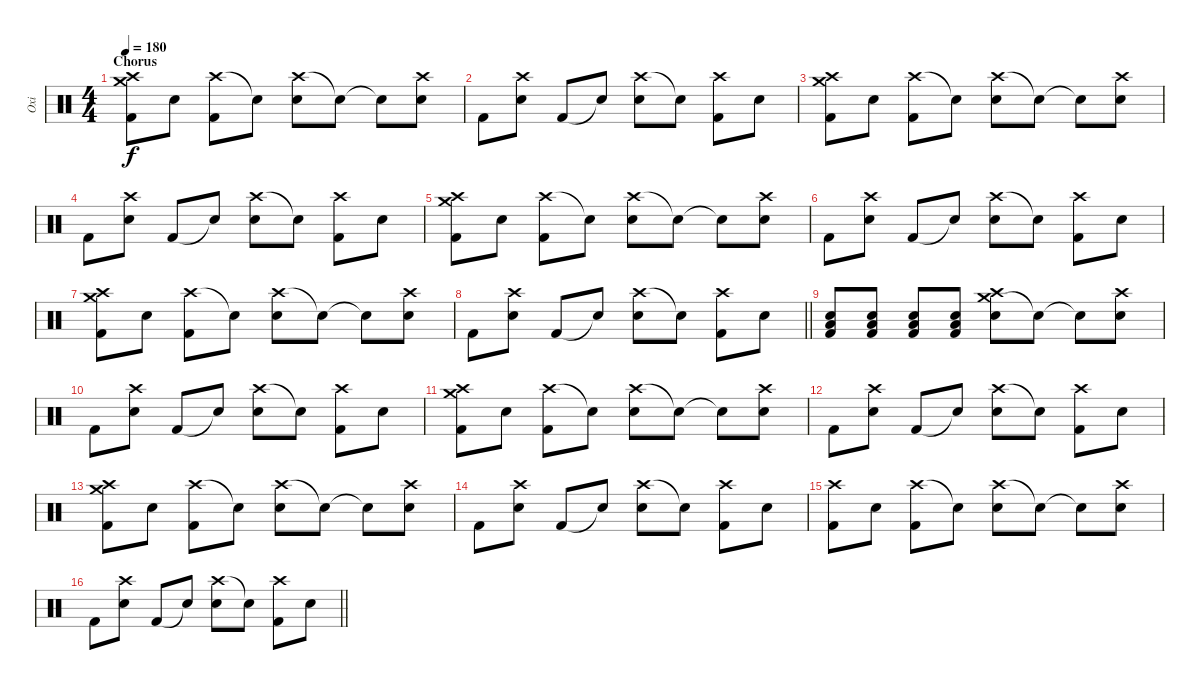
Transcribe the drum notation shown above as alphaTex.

\track ("Oxi" "Oxi") {instrument percussion}
\staff {score}
\articulation defaults
\ts (4 4)
\section ("" "Chorus")
\tempo 180
\clef neutral
\ks c
("Crash medium (hit)" "Crash high (hit)" "Kick (hit) 2").8{dy f} "Electric Snare (hit)".8 ("Crash high (hit)" "Kick (hit) 2").8 "Snare (hit)"{t}.8 ("Crash high (hit)" "Electric Snare (hit)").8 "Snare (hit)"{t}.8 "Snare (hit)"{t}.8 ("Crash high (hit)" "Electric Snare (hit)").8 |
"Kick (hit) 2".8 ("Crash high (hit)" "Electric Snare (hit)").8 "Kick (hit) 2".8 "Snare (hit)"{t}.8 ("Crash high (hit)" "Electric Snare (hit)").8 "Snare (hit)"{t}.8 ("Crash high (hit)" "Kick (hit) 2").8 "Electric Snare (hit)".8 |
("Crash medium (hit)" "Crash high (hit)" "Kick (hit) 2").8 "Electric Snare (hit)".8 ("Crash high (hit)" "Kick (hit) 2").8 "Snare (hit)"{t}.8 ("Crash high (hit)" "Electric Snare (hit)").8 "Snare (hit)"{t}.8 "Snare (hit)"{t}.8 ("Crash high (hit)" "Electric Snare (hit)").8 |
"Kick (hit) 2".8 ("Crash high (hit)" "Electric Snare (hit)").8 "Kick (hit) 2".8 "Snare (hit)"{t}.8 ("Crash high (hit)" "Electric Snare (hit)").8 "Snare (hit)"{t}.8 ("Crash high (hit)" "Kick (hit) 2").8 "Electric Snare (hit)".8 |
("Crash medium (hit)" "Crash high (hit)" "Kick (hit) 2").8 "Electric Snare (hit)".8 ("Crash high (hit)" "Kick (hit) 2").8 "Snare (hit)"{t}.8 ("Crash high (hit)" "Electric Snare (hit)").8 "Snare (hit)"{t}.8 "Snare (hit)"{t}.8 ("Crash high (hit)" "Electric Snare (hit)").8 |
"Kick (hit) 2".8 ("Crash high (hit)" "Electric Snare (hit)").8 "Kick (hit) 2".8 "Snare (hit)"{t}.8 ("Crash high (hit)" "Electric Snare (hit)").8 "Snare (hit)"{t}.8 ("Crash high (hit)" "Kick (hit) 2").8 "Electric Snare (hit)".8 |
("Crash medium (hit)" "Crash high (hit)" "Kick (hit) 2").8 "Electric Snare (hit)".8 ("Crash high (hit)" "Kick (hit) 2").8 "Snare (hit)"{t}.8 ("Crash high (hit)" "Electric Snare (hit)").8 "Snare (hit)"{t}.8 "Snare (hit)"{t}.8 ("Crash high (hit)" "Electric Snare (hit)").8 |
\barLineRight lightlight "Kick (hit) 2".8
("Crash high (hit)" "Electric Snare (hit)").8 "Kick (hit) 2".8 "Snare (hit)"{t}.8 ("Crash high (hit)" "Electric Snare (hit)").8 "Snare (hit)"{t}.8 ("Crash high (hit)" "Kick (hit) 2").8 "Electric Snare (hit)".8 |
("Electric Snare (hit)" "Low Tom (hit)" "Kick (hit) 2").8 ("Electric Snare (hit)" "Low Tom (hit)" "Kick (hit) 2").8 ("Electric Snare (hit)" "Low Tom (hit)" "Kick (hit) 2").8 ("Electric Snare (hit)" "Low Tom (hit)" "Kick (hit) 2").8 ("Crash medium (hit)" "Crash high (hit)" "Electric Snare (hit)").8 "Snare (hit)"{t}.8 "Snare (hit)"{t}.8 ("Crash high (hit)" "Electric Snare (hit)").8 |
"Kick (hit) 2".8 ("Crash high (hit)" "Electric Snare (hit)").8 "Kick (hit) 2".8 "Snare (hit)"{t}.8 ("Crash high (hit)" "Electric Snare (hit)").8 "Snare (hit)"{t}.8 ("Crash high (hit)" "Kick (hit) 2").8 "Electric Snare (hit)".8 |
("Crash medium (hit)" "Crash high (hit)" "Kick (hit) 2").8 "Electric Snare (hit)".8 ("Crash high (hit)" "Kick (hit) 2").8 "Snare (hit)"{t}.8 ("Crash high (hit)" "Electric Snare (hit)").8 "Snare (hit)"{t}.8 "Snare (hit)"{t}.8 ("Crash high (hit)" "Electric Snare (hit)").8 |
"Kick (hit) 2".8 ("Crash high (hit)" "Electric Snare (hit)").8 "Kick (hit) 2".8 "Snare (hit)"{t}.8 ("Crash high (hit)" "Electric Snare (hit)").8 "Snare (hit)"{t}.8 ("Crash high (hit)" "Kick (hit) 2").8 "Electric Snare (hit)".8 |
("Crash medium (hit)" "Crash high (hit)" "Kick (hit) 2").8 "Electric Snare (hit)".8 ("Crash high (hit)" "Kick (hit) 2").8 "Snare (hit)"{t}.8 ("Crash high (hit)" "Electric Snare (hit)").8 "Snare (hit)"{t}.8 "Snare (hit)"{t}.8 ("Crash high (hit)" "Electric Snare (hit)").8 |
"Kick (hit) 2".8 ("Crash high (hit)" "Electric Snare (hit)").8 "Kick (hit) 2".8 "Snare (hit)"{t}.8 ("Crash high (hit)" "Electric Snare (hit)").8 "Snare (hit)"{t}.8 ("Crash high (hit)" "Kick (hit) 2").8 "Electric Snare (hit)".8 |
("Crash high (hit)" "Kick (hit) 2").8 "Electric Snare (hit)".8 ("Crash high (hit)" "Kick (hit) 2").8 "Snare (hit)"{t}.8 ("Crash high (hit)" "Electric Snare (hit)").8 "Snare (hit)"{t}.8 "Snare (hit)"{t}.8 ("Crash high (hit)" "Electric Snare (hit)").8 |
\barLineRight lightlight "Kick (hit) 2".8
("Crash high (hit)" "Electric Snare (hit)").8 "Kick (hit) 2".8 "Snare (hit)"{t}.8 ("Crash high (hit)" "Electric Snare (hit)").8 "Snare (hit)"{t}.8 ("Crash high (hit)" "Kick (hit) 2").8 "Electric Snare (hit)".8
